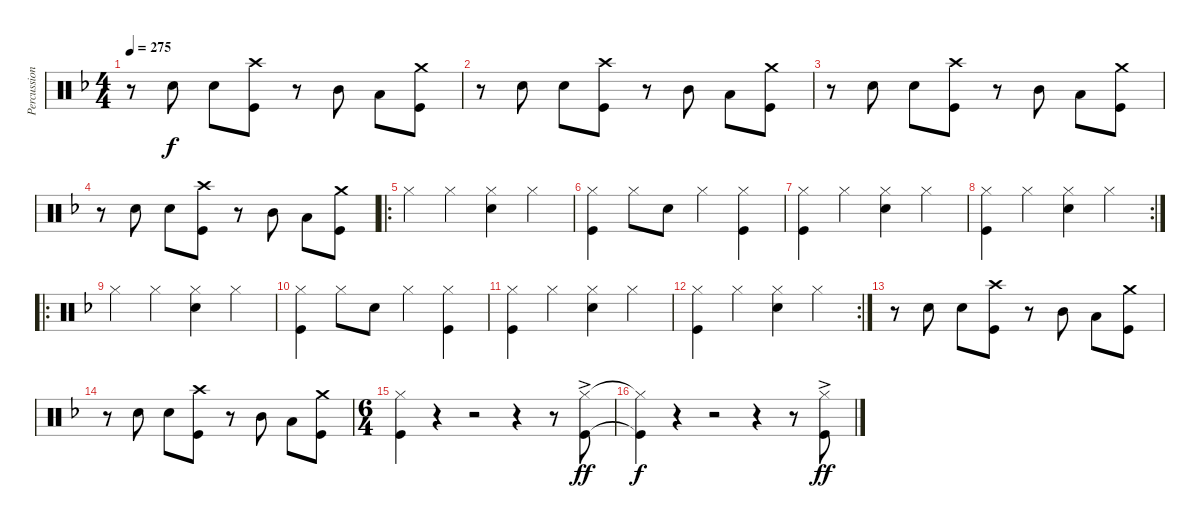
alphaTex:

\track ("Percussion" "Percussion") {instrument percussion}
\staff {score}
\articulation defaults
\ts (4 4)
\tempo 275
\clef neutral
\ks dminor
r.8{dy f} "Snare (hit) 2".8 "Snare (hit) 2".8 ("Crash high (hit)" "Kick (hit)").8 r.8 "Mid Tom (hit)".8 "Low Tom (hit)".8 ("Crash medium (hit)" "Kick (hit)").8 |
r.8 "Snare (hit) 2".8 "Snare (hit) 2".8 ("Crash high (hit)" "Kick (hit)").8 r.8 "Mid Tom (hit)".8 "Low Tom (hit)".8 ("Crash medium (hit)" "Kick (hit)").8 |
r.8 "Snare (hit) 2".8 "Snare (hit) 2".8 ("Crash high (hit)" "Kick (hit)").8 r.8 "Mid Tom (hit)".8 "Low Tom (hit)".8 ("Crash medium (hit)" "Kick (hit)").8 |
r.8 "Snare (hit) 2".8 "Snare (hit) 2".8 ("Crash high (hit)" "Kick (hit)").8 r.8 "Mid Tom (hit)".8 "Low Tom (hit)".8 ("Crash medium (hit)" "Kick (hit)").8 |
\ro "Hi-Hat (closed)".4 "Hi-Hat (closed)".4
("Hi-Hat (closed)" "Snare (hit) 2").4 "Hi-Hat (closed)".4 |
("Hi-Hat (closed)" "Kick (hit)").4 "Hi-Hat (closed)".8 "Snare (hit) 2".8 "Hi-Hat (closed)".4 ("Hi-Hat (closed)" "Kick (hit)").4 |
("Hi-Hat (closed)" "Kick (hit)").4 "Hi-Hat (closed)".4 ("Hi-Hat (closed)" "Snare (hit) 2").4 "Hi-Hat (closed)".4 |
\rc 2
("Hi-Hat (closed)" "Kick (hit)").4 "Hi-Hat (closed)".4 ("Hi-Hat (closed)" "Snare (hit) 2").4 "Hi-Hat (closed)".4 |
\ro "Hi-Hat (closed)".4 "Hi-Hat (closed)".4
("Hi-Hat (closed)" "Snare (hit) 2").4 "Hi-Hat (closed)".4 |
("Hi-Hat (closed)" "Kick (hit)").4 "Hi-Hat (closed)".8 "Snare (hit) 2".8 "Hi-Hat (closed)".4 ("Hi-Hat (closed)" "Kick (hit)").4 |
("Hi-Hat (closed)" "Kick (hit)").4 "Hi-Hat (closed)".4 ("Hi-Hat (closed)" "Snare (hit) 2").4 "Hi-Hat (closed)".4 |
\rc 2
("Hi-Hat (closed)" "Kick (hit)").4 "Hi-Hat (closed)".4 ("Hi-Hat (closed)" "Snare (hit) 2").4 "Hi-Hat (closed)".4 |
r.8 "Snare (hit) 2".8 "Snare (hit) 2".8 ("Crash high (hit)" "Kick (hit)").8 r.8 "Mid Tom (hit)".8 "Low Tom (hit)".8 ("Crash medium (hit)" "Kick (hit)").8 |
r.8 "Snare (hit) 2".8 "Snare (hit) 2".8 ("Crash high (hit)" "Kick (hit)").8 r.8 "Mid Tom (hit)".8 "Low Tom (hit)".8 ("Crash medium (hit)" "Kick (hit)").8 |
\ts (6 4)
("Hi-Hat (closed)" "Kick (hit)").4 r.4 r.2 r.4 r.8 ("Hi-Hat (closed)" "Kick (hit)"{ac}).8{dy ff} |
("Hi-Hat (closed)"{t} "Kick (hit)"{t}).4{dy f} r.4 r.2 r.4 r.8 ("Hi-Hat (closed)"{ac} "Kick (hit)"{ac}).8{dy ff}
